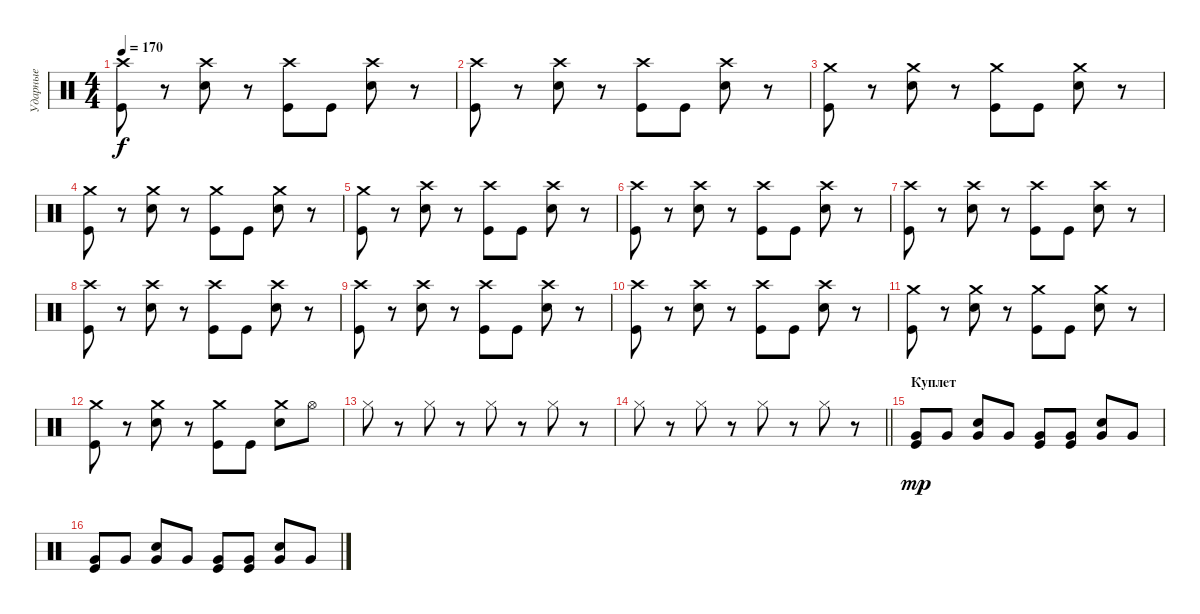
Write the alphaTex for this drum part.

\track ("Ударные" "Ударные") {instrument percussion}
\staff {score}
\articulation defaults
\ts (4 4)
\tempo 170
\clef neutral
\ks c
("Crash high (hit)" "Kick (hit)").8{dy f} r.8 ("Crash high (hit)" "Electric Snare (hit)").8 r.8 ("Crash high (hit)" "Kick (hit)").8 "Kick (hit)".8 ("Crash high (hit)" "Electric Snare (hit)").8 r.8 |
("Crash high (hit)" "Kick (hit)").8 r.8 ("Crash high (hit)" "Electric Snare (hit)").8 r.8 ("Crash high (hit)" "Kick (hit)").8 "Kick (hit)".8 ("Crash high (hit)" "Electric Snare (hit)").8 r.8 |
("Crash medium (hit)" "Kick (hit)").8 r.8 ("Crash medium (hit)" "Electric Snare (hit)").8 r.8 ("Crash medium (hit)" "Kick (hit)").8 "Kick (hit)".8 ("Crash medium (hit)" "Electric Snare (hit)").8 r.8 |
("Crash medium (hit)" "Kick (hit)").8 r.8 ("Crash medium (hit)" "Electric Snare (hit)").8 r.8 ("Crash medium (hit)" "Kick (hit)").8 "Kick (hit)".8 ("Crash medium (hit)" "Electric Snare (hit)").8 r.8 |
("Crash medium (hit)" "Kick (hit)").8 r.8 ("Crash high (hit)" "Electric Snare (hit)").8 r.8 ("Crash high (hit)" "Kick (hit)").8 "Kick (hit)".8 ("Crash high (hit)" "Electric Snare (hit)").8 r.8 |
("Crash high (hit)" "Kick (hit)").8 r.8 ("Crash high (hit)" "Electric Snare (hit)").8 r.8 ("Crash high (hit)" "Kick (hit)").8 "Kick (hit)".8 ("Crash high (hit)" "Electric Snare (hit)").8 r.8 |
("Crash high (hit)" "Kick (hit)").8 r.8 ("Crash high (hit)" "Electric Snare (hit)").8 r.8 ("Crash high (hit)" "Kick (hit)").8 "Kick (hit)".8 ("Crash high (hit)" "Electric Snare (hit)").8 r.8 |
("Crash high (hit)" "Kick (hit)").8 r.8 ("Crash high (hit)" "Electric Snare (hit)").8 r.8 ("Crash high (hit)" "Kick (hit)").8 "Kick (hit)".8 ("Crash high (hit)" "Electric Snare (hit)").8 r.8 |
("Crash high (hit)" "Kick (hit)").8 r.8 ("Crash high (hit)" "Electric Snare (hit)").8 r.8 ("Crash high (hit)" "Kick (hit)").8 "Kick (hit)".8 ("Crash high (hit)" "Electric Snare (hit)").8 r.8 |
("Crash high (hit)" "Kick (hit)").8 r.8 ("Crash high (hit)" "Electric Snare (hit)").8 r.8 ("Crash high (hit)" "Kick (hit)").8 "Kick (hit)".8 ("Crash high (hit)" "Electric Snare (hit)").8 r.8 |
("Crash medium (hit)" "Kick (hit)").8 r.8 ("Crash medium (hit)" "Electric Snare (hit)").8 r.8 ("Crash medium (hit)" "Kick (hit)").8 "Kick (hit)".8 ("Crash medium (hit)" "Electric Snare (hit)").8 r.8 |
("Crash medium (hit)" "Kick (hit)").8 r.8 ("Crash medium (hit)" "Electric Snare (hit)").8 r.8 ("Crash medium (hit)" "Kick (hit)").8 "Kick (hit)".8 ("Crash medium (hit)" "Electric Snare (hit)").8 "Hi-Hat (open)".8 |
"Hi-Hat (closed)".8 r.8 "Hi-Hat (closed)".8 r.8 "Hi-Hat (closed)".8 r.8 "Hi-Hat (closed)".8 r.8 |
\barLineRight lightlight "Hi-Hat (closed)".8
r.8 "Hi-Hat (closed)".8 r.8 "Hi-Hat (closed)".8 r.8 "Hi-Hat (closed)".8 r.8 |
\section ("" "Куплет")
("Very Low Tom (hit)" "Kick (hit)").8{dy mp} "Very Low Tom (hit)".8 ("Very Low Tom (hit)" "Electric Snare (hit)").8 "Very Low Tom (hit)".8 ("Very Low Tom (hit)" "Kick (hit)").8 ("Very Low Tom (hit)" "Kick (hit)").8 ("Very Low Tom (hit)" "Electric Snare (hit)").8 "Very Low Tom (hit)".8 |
("Very Low Tom (hit)" "Kick (hit)").8 "Very Low Tom (hit)".8 ("Very Low Tom (hit)" "Electric Snare (hit)").8 "Very Low Tom (hit)".8 ("Very Low Tom (hit)" "Kick (hit)").8 ("Very Low Tom (hit)" "Kick (hit)").8 ("Very Low Tom (hit)" "Electric Snare (hit)").8 "Very Low Tom (hit)".8
